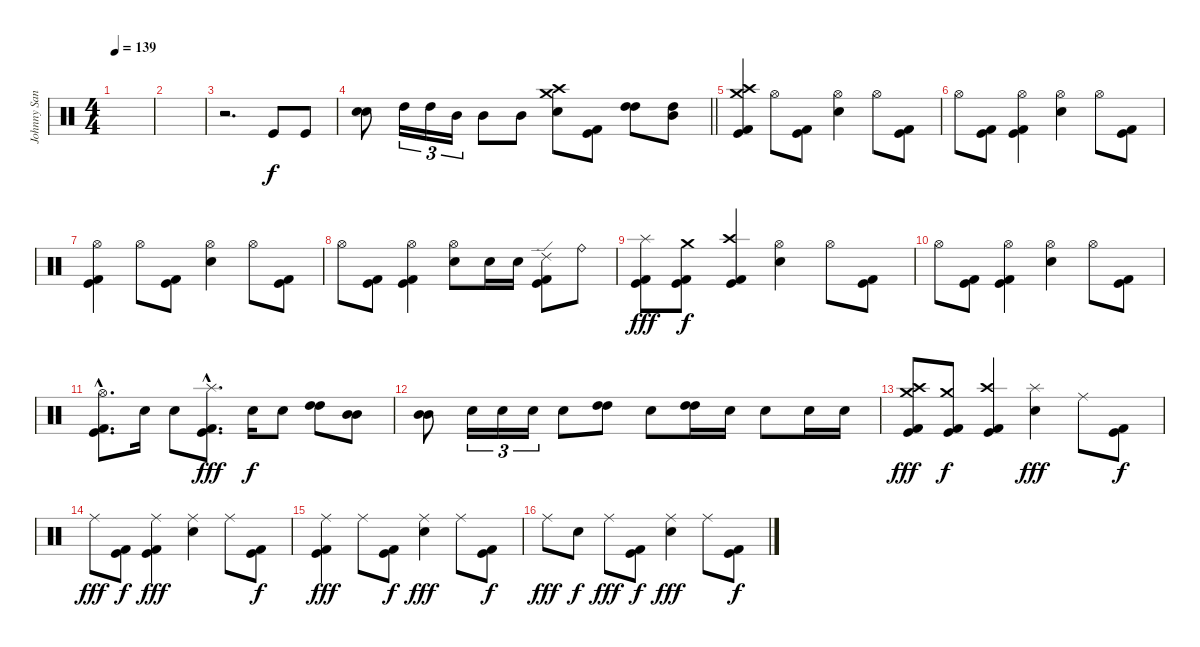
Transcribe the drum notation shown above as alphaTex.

\track ("Johnny Sandin" "Johnny San") {instrument percussion}
\staff {score}
\articulation defaults
\ts (4 4)
\tempo 139
\clef neutral
\ks c
|
|
r.2{d} "Kick (hit)".8 "Kick (hit)".8 |
\barLineRight lightlight
("Snare (hit) 2" "Snare (hit) 2").8 "High Tom (hit)".16{tu (3 2)} "High Tom (hit)".16{tu (3 2)} "Mid Tom (hit)".16{tu (3 2)} "Mid Tom (hit)".8 "Mid Tom (hit)".8 ("Crash medium (hit)" "Crash high (hit)" "Snare (hit) 2").8 ("Kick (hit) 2" "Kick (hit)").8 ("High Tom (hit)" "High Tom (hit)").8 ("Mid Tom (hit)" "High Tom (hit)").8 |
("Crash medium (hit)" "Crash high (hit)" "Kick (hit) 2" "Kick (hit)").4 "Hi-Hat (open)".8 ("Kick (hit) 2" "Kick (hit)").8 ("Hi-Hat (open)" "Snare (hit) 2").4 "Hi-Hat (open)".8 ("Kick (hit)" "Kick (hit) 2").8 |
"Hi-Hat (open)".8 ("Kick (hit) 2" "Kick (hit)").8 ("Hi-Hat (open)" "Kick (hit) 2" "Kick (hit)").4 ("Hi-Hat (open)" "Snare (hit) 2").4 "Hi-Hat (open)".8 ("Kick (hit) 2" "Kick (hit)").8 |
("Hi-Hat (open)" "Kick (hit) 2" "Kick (hit)").4 "Hi-Hat (open)".8 ("Kick (hit) 2" "Kick (hit)").8 ("Hi-Hat (open)" "Snare (hit) 2").4 "Hi-Hat (open)".8 ("Kick (hit)" "Kick (hit) 2").8 |
"Hi-Hat (open)".8 ("Kick (hit) 2" "Kick (hit)").8 ("Hi-Hat (open)" "Kick (hit) 2" "Kick (hit)").4 ("Hi-Hat (open)" "Snare (hit) 2").8 "Snare (hit) 2".16 "Snare (hit) 2".16 ("Ride (edge) 2" "Kick (hit) 2" "Kick (hit)").8 "Ride (bell)".8 |
("Splash (hit)" "Kick (hit) 2" "Kick (hit)").8{dy fff} ("Crash medium (hit)" "Kick (hit) 2" "Kick (hit)").8{dy f} ("Crash high (hit)" "Kick (hit) 2" "Kick (hit)").4 ("Hi-Hat (open)" "Snare (hit) 2").4 "Hi-Hat (open)".8 ("Kick (hit) 2" "Kick (hit)").8 |
"Hi-Hat (open)".8 ("Kick (hit) 2" "Kick (hit)").8 ("Hi-Hat (open)" "Kick (hit) 2" "Kick (hit)").4 ("Hi-Hat (open)" "Snare (hit) 2").4 "Hi-Hat (open)".8 ("Kick (hit) 2" "Kick (hit)").8 |
("Hi-Hat (open)"{hac} "Kick (hit) 2"{hac} "Kick (hit)"{hac}).8{d} "Snare (hit) 2".16 "Snare (hit) 2".8 ("Splash (hit)"{hac} "Kick (hit)"{hac} "Kick (hit) 2"{hac}).8{d dy fff} "Snare (hit) 2".16{dy f} "Snare (hit) 2".8 ("High Tom (hit)" "High Tom (hit)").8 ("Mid Tom (hit)" "Mid Tom (hit)").8 |
("Mid Tom (hit)" "Mid Tom (hit)").8 "Snare (hit) 2".16{tu (3 2)} "Snare (hit) 2".16{tu (3 2)} "Snare (hit) 2".16{tu (3 2)} "Snare (hit) 2".8 ("High Tom (hit)" "High Tom (hit)").8 "Snare (hit) 2".8 ("High Tom (hit)" "High Tom (hit)").16 "Snare (hit) 2".16 "Snare (hit) 2".8 "Snare (hit) 2".16 "Snare (hit) 2".16 |
("Crash medium (hit)" "Crash high (hit)" "Kick (hit) 2" "Kick (hit)").8{dy fff} ("Crash medium (hit)" "Kick (hit) 2" "Kick (hit)").8{dy f} ("Crash high (hit)" "Kick (hit) 2" "Kick (hit)").4 ("Splash (hit)" "Snare (hit) 2").4{dy fff} "Ride (middle)".8 ("Kick (hit) 2" "Kick (hit)").8{dy f} |
"Ride (middle)".8{dy fff} ("Kick (hit) 2" "Kick (hit)").8{dy f} ("Ride (middle)" "Kick (hit) 2" "Kick (hit)").4{dy fff} ("Ride (middle)" "Snare (hit) 2").4 "Ride (middle)".8 ("Kick (hit) 2" "Kick (hit)").8{dy f} |
("Ride (middle)" "Kick (hit) 2" "Kick (hit)").4{dy fff} "Ride (middle)".8 ("Kick (hit) 2" "Kick (hit)").8{dy f} ("Ride (middle)" "Snare (hit) 2").4{dy fff} "Ride (middle)".8 ("Kick (hit)" "Kick (hit) 2").8{dy f} |
"Ride (middle)".8{dy fff} "Snare (hit) 2".8{dy f} "Ride (middle)".8{dy fff} ("Kick (hit) 2" "Kick (hit)").8{dy f} ("Ride (middle)" "Snare (hit) 2").4{dy fff} "Ride (middle)".8 ("Kick (hit) 2" "Kick (hit)").8{dy f}
